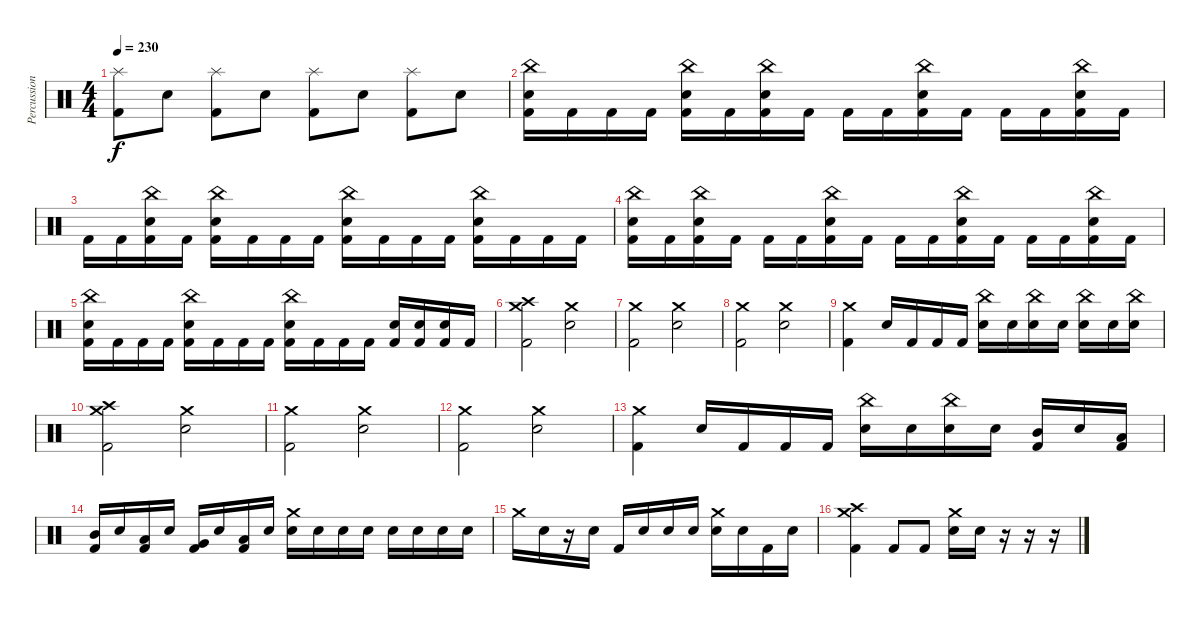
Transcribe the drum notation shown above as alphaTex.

\track ("Percussion" "Percussion") {instrument percussion}
\staff {score}
\articulation defaults
\ts (4 4)
\tempo 230
\clef neutral
\ks c
("Splash (hit)" "Kick (hit) 2").8{dy f} "Snare (hit) 2".8 ("Splash (hit)" "Kick (hit) 2").8 "Snare (hit) 2".8 ("Splash (hit)" "Kick (hit) 2").8 "Snare (hit) 2".8 ("Splash (hit)" "Kick (hit) 2").8 "Snare (hit) 2".8 |
("Snare (hit) 2" "China (hit)" "Kick (hit) 2").16 "Kick (hit) 2".16 "Kick (hit) 2".16 "Kick (hit) 2".16 ("Snare (hit) 2" "China (hit)" "Kick (hit) 2").16 "Kick (hit) 2".16 ("Snare (hit) 2" "China (hit)" "Kick (hit) 2").16 "Kick (hit) 2".16 "Kick (hit) 2".16 "Kick (hit) 2".16 ("Snare (hit) 2" "China (hit)" "Kick (hit) 2").16 "Kick (hit) 2".16 "Kick (hit) 2".16 "Kick (hit) 2".16 ("Snare (hit) 2" "China (hit)" "Kick (hit) 2").16 "Kick (hit) 2".16 |
"Kick (hit) 2".16 "Kick (hit) 2".16 ("China (hit)" "Snare (hit) 2" "Kick (hit) 2").16 "Kick (hit) 2".16 ("China (hit)" "Snare (hit) 2" "Kick (hit) 2").16 "Kick (hit) 2".16 "Kick (hit) 2".16 "Kick (hit) 2".16 ("Snare (hit) 2" "China (hit)" "Kick (hit) 2").16 "Kick (hit) 2".16 "Kick (hit) 2".16 "Kick (hit) 2".16 ("Snare (hit) 2" "China (hit)" "Kick (hit) 2").16 "Kick (hit) 2".16 "Kick (hit) 2".16 "Kick (hit) 2".16 |
("Snare (hit) 2" "China (hit)" "Kick (hit) 2").16 "Kick (hit) 2".16 ("Snare (hit) 2" "China (hit)" "Kick (hit) 2").16 "Kick (hit) 2".16 "Kick (hit) 2".16 "Kick (hit) 2".16 ("Snare (hit) 2" "China (hit)" "Kick (hit) 2").16 "Kick (hit) 2".16 "Kick (hit) 2".16 "Kick (hit) 2".16 ("Snare (hit) 2" "China (hit)" "Kick (hit) 2").16 "Kick (hit) 2".16 "Kick (hit) 2".16 "Kick (hit) 2".16 ("Snare (hit) 2" "China (hit)" "Kick (hit) 2").16 "Kick (hit) 2".16 |
("Snare (hit) 2" "China (hit)" "Kick (hit) 2").16 "Kick (hit) 2".16 "Kick (hit) 2".16 "Kick (hit) 2".16 ("Snare (hit) 2" "China (hit)" "Kick (hit) 2").16 "Kick (hit) 2".16 "Kick (hit) 2".16 "Kick (hit) 2".16 ("Snare (hit) 2" "China (hit)" "Kick (hit) 2").16 "Kick (hit) 2".16 "Kick (hit) 2".16 "Kick (hit) 2".16 ("Snare (hit) 2" "Kick (hit) 2").16 ("Snare (hit) 2" "Kick (hit) 2").16 ("Snare (hit) 2" "Kick (hit) 2").16 "Kick (hit) 2".16 |
("Crash high (hit)" "Crash medium (hit)" "Kick (hit) 2").2 ("Crash medium (hit)" "Snare (hit) 2").2 |
("Crash medium (hit)" "Kick (hit) 2").2 ("Crash medium (hit)" "Snare (hit) 2").2 |
("Crash medium (hit)" "Kick (hit) 2").2 ("Crash medium (hit)" "Snare (hit) 2").2 |
("Crash medium (hit)" "Kick (hit) 2").4 "Snare (hit)".16 "Kick (hit) 2".16 "Kick (hit) 2".16 "Kick (hit) 2".16 ("China (hit)" "Snare (hit) 2").16 "Snare (hit)".16 ("China (hit)" "Snare (hit) 2").16 "Snare (hit)".16 ("China (hit)" "Snare (hit) 2").16 "Snare (hit)".16 ("China (hit)" "Snare (hit) 2").16 |
("Crash high (hit)" "Crash medium (hit)" "Kick (hit) 2").2 ("Crash medium (hit)" "Snare (hit) 2").2 |
("Crash medium (hit)" "Kick (hit) 2").2 ("Crash medium (hit)" "Snare (hit) 2").2 |
("Crash medium (hit)" "Kick (hit) 2").2 ("Crash medium (hit)" "Snare (hit) 2").2 |
("Crash medium (hit)" "Kick (hit) 2").4 "Snare (hit)".16 "Kick (hit) 2".16 "Kick (hit) 2".16 "Kick (hit) 2".16 ("China (hit)" "Snare (hit) 2").16 "Snare (hit)".16 ("China (hit)" "Snare (hit) 2").16 "Snare (hit)".16 ("Mid Tom (hit)" "Kick (hit) 2").16 "Snare (hit)".16 ("Low Tom (hit)" "Kick (hit) 2").16 |
("Mid Tom (hit)" "Kick (hit) 2").16 "Snare (hit)".16 ("Low Tom (hit)" "Kick (hit) 2").16 "Snare (hit)".16 ("Very Low Tom (hit)" "Kick (hit) 2").16 "Snare (hit)".16 ("Low Floor Tom (hit)" "Kick (hit) 2").16 "Snare (hit)".16 ("Snare (hit) 2" "Crash medium (hit)").16 "Snare (hit)".16 "Snare (hit)".16 "Snare (hit)".16 "Snare (hit)".16 "Snare (hit)".16 "Snare (hit)".16 "Snare (hit)".16 |
"Crash medium (hit)".16 "Snare (hit)".16 r.16 "Snare (hit)".16 "Kick (hit) 2".16 "Snare (hit)".16 "Snare (hit)".16 "Snare (hit)".16 ("Snare (hit) 2" "Crash medium (hit)").16 "Snare (hit)".16 "Kick (hit) 2".16 "Snare (hit)".16 |
("Crash high (hit)" "Crash medium (hit)" "Kick (hit) 2").4 "Kick (hit) 2".8 "Kick (hit) 2".8 ("Crash medium (hit)" "Snare (hit) 2").16 "Snare (hit)".16 r.16 r.16 r.16
